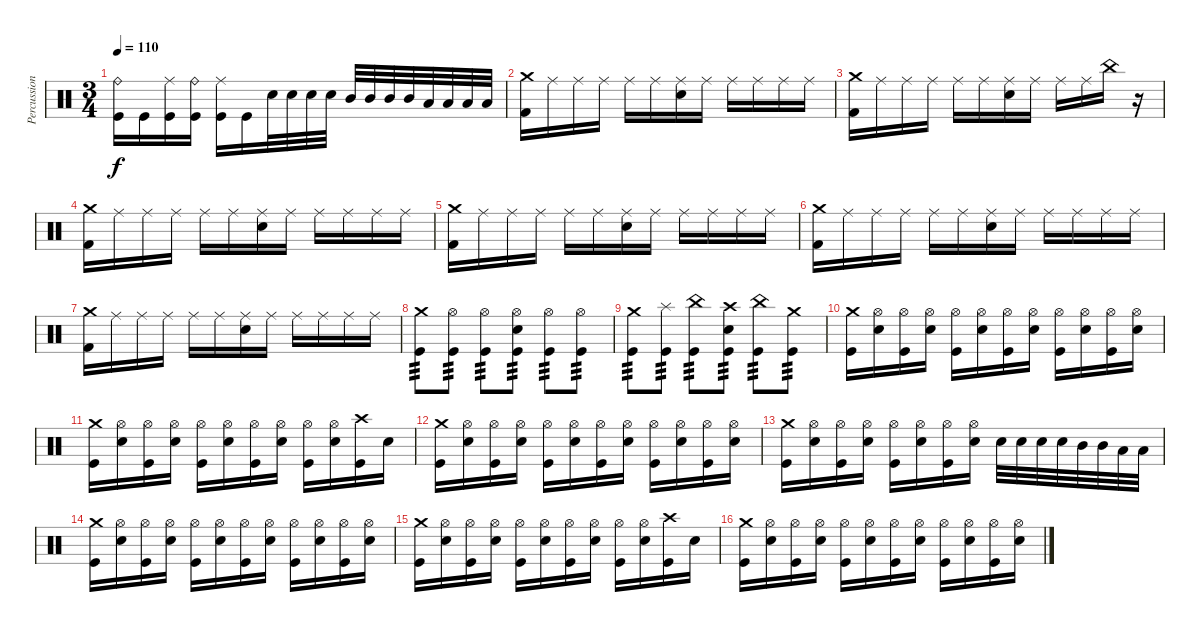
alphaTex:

\track ("Percussion" "Percussion") {instrument percussion}
\staff {score}
\articulation defaults
\ts (3 4)
\tempo 110
\clef neutral
\ks c
("Ride (bell)" "Kick (hit)").16{dy f} "Kick (hit)".16 ("Ride (middle)" "Kick (hit)").16 ("Ride (bell)" "Kick (hit)").16 ("Ride (middle)" "Kick (hit)").16 "Kick (hit)".16 "Electric Snare (hit)".32 "Electric Snare (hit)".32 "Electric Snare (hit)".32 "Electric Snare (hit)".32 "Mid Tom (hit)".32 "Mid Tom (hit)".32 "Mid Tom (hit)".32 "Mid Tom (hit)".32 "Low Tom (hit)".32 "Low Tom (hit)".32 "Low Tom (hit)".32 "Low Tom (hit)".32 |
("Crash medium (hit)" "Kick (hit) 2").16 "Ride (middle)".16 "Ride (middle)".16 "Ride (middle)".16 "Ride (middle)".16 "Ride (middle)".16 ("Ride (middle)" "Electric Snare (hit)").16 "Ride (middle)".16 "Ride (middle)".16 "Ride (middle)".16 "Ride (middle)".16 "Ride (middle)".16 |
("Crash medium (hit)" "Kick (hit) 2").16 "Ride (middle)".16 "Ride (middle)".16 "Ride (middle)".16 "Ride (middle)".16 "Ride (middle)".16 ("Ride (middle)" "Electric Snare (hit)").16 "Ride (middle)".16 "Ride (middle)".16 "Ride (middle)".16 "China (hit)".16 r.16 |
("Crash medium (hit)" "Kick (hit) 2").16 "Ride (middle)".16 "Ride (middle)".16 "Ride (middle)".16 "Ride (middle)".16 "Ride (middle)".16 ("Ride (middle)" "Electric Snare (hit)").16 "Ride (middle)".16 "Ride (middle)".16 "Ride (middle)".16 "Ride (middle)".16 "Ride (middle)".16 |
("Crash medium (hit)" "Kick (hit) 2").16 "Ride (middle)".16 "Ride (middle)".16 "Ride (middle)".16 "Ride (middle)".16 "Ride (middle)".16 ("Ride (middle)" "Electric Snare (hit)").16 "Ride (middle)".16 "Ride (middle)".16 "Ride (middle)".16 "Ride (middle)".16 "Ride (middle)".16 |
("Crash medium (hit)" "Kick (hit) 2").16 "Ride (middle)".16 "Ride (middle)".16 "Ride (middle)".16 "Ride (middle)".16 "Ride (middle)".16 ("Ride (middle)" "Electric Snare (hit)").16 "Ride (middle)".16 "Ride (middle)".16 "Ride (middle)".16 "Ride (middle)".16 "Ride (middle)".16 |
("Crash medium (hit)" "Kick (hit) 2").16 "Ride (middle)".16 "Ride (middle)".16 "Ride (middle)".16 "Ride (middle)".16 "Ride (middle)".16 ("Ride (middle)" "Electric Snare (hit)").16 "Ride (middle)".16 "Ride (middle)".16 "Ride (middle)".16 "Ride (middle)".16 "Ride (middle)".16 |
("Crash medium (hit)" "Kick (hit)").8{tp 3} ("Hi-Hat (open)" "Kick (hit)").8{tp 3} ("Hi-Hat (open)" "Kick (hit)").8{tp 3} ("Electric Snare (hit)" "Hi-Hat (open)" "Kick (hit)").8{tp 3} ("Hi-Hat (open)" "Kick (hit)").8{tp 3} ("Hi-Hat (open)" "Kick (hit)").8{tp 3} |
("Crash medium (hit)" "Kick (hit)").8{tp 3} ("Splash (hit)" "Kick (hit)").8{tp 3} ("China (hit)" "Kick (hit)").8{tp 3} ("Electric Snare (hit)" "Crash high (hit)" "Kick (hit)").8{tp 3} ("China (hit)" "Kick (hit)").8{tp 3} ("Crash medium (hit)" "Kick (hit)").8{tp 3} |
("Crash medium (hit)" "Kick (hit)").16 ("Hi-Hat (open)" "Electric Snare (hit)").16 ("Hi-Hat (open)" "Kick (hit)").16 ("Hi-Hat (open)" "Electric Snare (hit)").16 ("Hi-Hat (open)" "Kick (hit)").16 ("Hi-Hat (open)" "Electric Snare (hit)").16 ("Hi-Hat (open)" "Kick (hit)").16 ("Hi-Hat (open)" "Electric Snare (hit)").16 ("Hi-Hat (open)" "Kick (hit)").16 ("Hi-Hat (open)" "Electric Snare (hit)").16 ("Hi-Hat (open)" "Kick (hit)").16 ("Hi-Hat (open)" "Electric Snare (hit)").16 |
("Crash medium (hit)" "Kick (hit)").16 ("Hi-Hat (open)" "Electric Snare (hit)").16 ("Hi-Hat (open)" "Kick (hit)").16 ("Hi-Hat (open)" "Electric Snare (hit)").16 ("Hi-Hat (open)" "Kick (hit)").16 ("Hi-Hat (open)" "Electric Snare (hit)").16 ("Hi-Hat (open)" "Kick (hit)").16 ("Hi-Hat (open)" "Electric Snare (hit)").16 ("Hi-Hat (open)" "Kick (hit)").16 ("Hi-Hat (open)" "Electric Snare (hit)").16 ("Crash high (hit)" "Kick (hit)").16 "Electric Snare (hit)".16 |
("Crash medium (hit)" "Kick (hit)").16 ("Hi-Hat (open)" "Electric Snare (hit)").16 ("Hi-Hat (open)" "Kick (hit)").16 ("Hi-Hat (open)" "Electric Snare (hit)").16 ("Hi-Hat (open)" "Kick (hit)").16 ("Hi-Hat (open)" "Electric Snare (hit)").16 ("Hi-Hat (open)" "Kick (hit)").16 ("Hi-Hat (open)" "Electric Snare (hit)").16 ("Hi-Hat (open)" "Kick (hit)").16 ("Hi-Hat (open)" "Electric Snare (hit)").16 ("Hi-Hat (open)" "Kick (hit)").16 ("Hi-Hat (open)" "Electric Snare (hit)").16 |
("Crash medium (hit)" "Kick (hit)").16 ("Hi-Hat (open)" "Electric Snare (hit)").16 ("Hi-Hat (open)" "Kick (hit)").16 ("Hi-Hat (open)" "Electric Snare (hit)").16 ("Hi-Hat (open)" "Kick (hit)").16 ("Hi-Hat (open)" "Electric Snare (hit)").16 ("Hi-Hat (open)" "Kick (hit)").16 ("Hi-Hat (open)" "Electric Snare (hit)").16 "Electric Snare (hit)".32 "Electric Snare (hit)".32 "Electric Snare (hit)".32 "Electric Snare (hit)".32 "Mid Tom (hit)".32 "Mid Tom (hit)".32 "Low Tom (hit)".32 "Low Tom (hit)".32 |
("Crash medium (hit)" "Kick (hit)").16 ("Hi-Hat (open)" "Electric Snare (hit)").16 ("Hi-Hat (open)" "Kick (hit)").16 ("Hi-Hat (open)" "Electric Snare (hit)").16 ("Hi-Hat (open)" "Kick (hit)").16 ("Hi-Hat (open)" "Electric Snare (hit)").16 ("Hi-Hat (open)" "Kick (hit)").16 ("Hi-Hat (open)" "Electric Snare (hit)").16 ("Hi-Hat (open)" "Kick (hit)").16 ("Hi-Hat (open)" "Electric Snare (hit)").16 ("Hi-Hat (open)" "Kick (hit)").16 ("Hi-Hat (open)" "Electric Snare (hit)").16 |
("Crash medium (hit)" "Kick (hit)").16 ("Hi-Hat (open)" "Electric Snare (hit)").16 ("Hi-Hat (open)" "Kick (hit)").16 ("Hi-Hat (open)" "Electric Snare (hit)").16 ("Hi-Hat (open)" "Kick (hit)").16 ("Hi-Hat (open)" "Electric Snare (hit)").16 ("Hi-Hat (open)" "Kick (hit)").16 ("Hi-Hat (open)" "Electric Snare (hit)").16 ("Hi-Hat (open)" "Kick (hit)").16 ("Hi-Hat (open)" "Electric Snare (hit)").16 ("Crash high (hit)" "Kick (hit)").16 "Electric Snare (hit)".16 |
("Crash medium (hit)" "Kick (hit)").16 ("Hi-Hat (open)" "Electric Snare (hit)").16 ("Hi-Hat (open)" "Kick (hit)").16 ("Hi-Hat (open)" "Electric Snare (hit)").16 ("Hi-Hat (open)" "Kick (hit)").16 ("Hi-Hat (open)" "Electric Snare (hit)").16 ("Hi-Hat (open)" "Kick (hit)").16 ("Hi-Hat (open)" "Electric Snare (hit)").16 ("Hi-Hat (open)" "Kick (hit)").16 ("Hi-Hat (open)" "Electric Snare (hit)").16 ("Hi-Hat (open)" "Kick (hit)").16 ("Hi-Hat (open)" "Electric Snare (hit)").16
